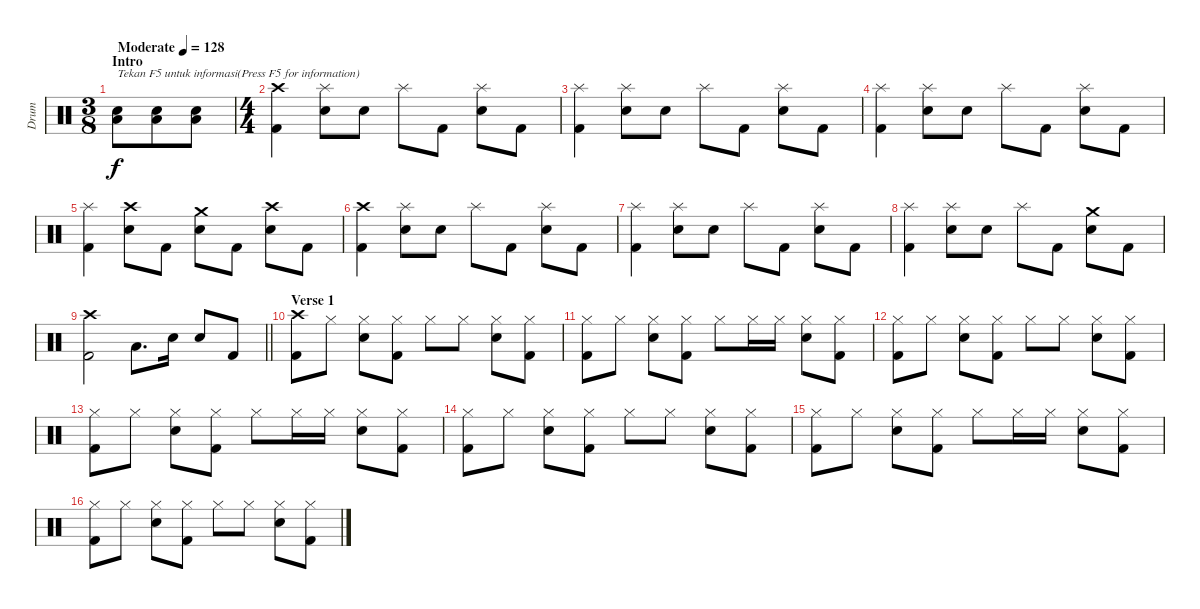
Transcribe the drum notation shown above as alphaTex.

\track ("Drum" "Drum") {instrument percussion}
\staff {score}
\articulation defaults
\ts (3 8)
\section ("" "Intro")
\tempo (128 "Moderate")
\clef neutral
\ks c
("Electric Snare (hit)" "Low Floor Tom (hit)").8{txt "Tekan F5 untuk informasi(Press F5 for information)" dy f} ("Electric Snare (hit)" "Low Floor Tom (hit)").8 ("Electric Snare (hit)" "Low Floor Tom (hit)").8 |
\ts (4 4)
("Crash high (hit)" "Kick (hit) 2").4 ("Splash (hit)" "Electric Snare (hit)").8 "Electric Snare (hit)".8 "Splash (hit)".8 "Kick (hit) 2".8 ("Splash (hit)" "Electric Snare (hit)").8 "Kick (hit) 2".8 |
("Splash (hit)" "Kick (hit) 2").4 ("Splash (hit)" "Electric Snare (hit)").8 "Electric Snare (hit)".8 "Splash (hit)".8 "Kick (hit) 2".8 ("Splash (hit)" "Electric Snare (hit)").8 "Kick (hit) 2".8 |
("Splash (hit)" "Kick (hit) 2").4 ("Splash (hit)" "Electric Snare (hit)").8 "Electric Snare (hit)".8 "Splash (hit)".8 "Kick (hit) 2".8 ("Splash (hit)" "Electric Snare (hit)").8 "Kick (hit) 2".8 |
("Splash (hit)" "Kick (hit) 2").4 ("Crash high (hit)" "Electric Snare (hit)").8 "Kick (hit) 2".8 ("Crash medium (hit)" "Electric Snare (hit)").8 "Kick (hit) 2".8 ("Crash high (hit)" "Electric Snare (hit)").8 "Kick (hit) 2".8 |
("Crash high (hit)" "Kick (hit) 2").4 ("Splash (hit)" "Electric Snare (hit)").8 "Electric Snare (hit)".8 "Splash (hit)".8 "Kick (hit) 2".8 ("Splash (hit)" "Electric Snare (hit)").8 "Kick (hit) 2".8 |
("Splash (hit)" "Kick (hit) 2").4 ("Splash (hit)" "Electric Snare (hit)").8 "Electric Snare (hit)".8 "Splash (hit)".8 "Kick (hit) 2".8 ("Splash (hit)" "Electric Snare (hit)").8 "Kick (hit) 2".8 |
("Splash (hit)" "Kick (hit) 2").4 ("Splash (hit)" "Electric Snare (hit)").8 "Electric Snare (hit)".8 "Splash (hit)".8 "Kick (hit) 2".8 ("Crash medium (hit)" "Electric Snare (hit)").8 "Kick (hit) 2".8 |
\barLineRight lightlight
("Crash high (hit)" "Kick (hit) 2").2 "Low Tom (hit)".8{d} "Electric Snare (hit)".16 "Electric Snare (hit)".8 "Kick (hit) 2".8 |
\section ("" "Verse 1")
("Crash high (hit)" "Kick (hit) 2").8 "Hi-Hat (closed)".8 ("Hi-Hat (closed)" "Electric Snare (hit)").8 ("Hi-Hat (closed)" "Kick (hit) 2").8 "Hi-Hat (closed)".8 "Hi-Hat (closed)".8 ("Hi-Hat (closed)" "Electric Snare (hit)").8 ("Hi-Hat (closed)" "Kick (hit) 2").8 |
("Hi-Hat (closed)" "Kick (hit) 2").8 "Hi-Hat (closed)".8 ("Hi-Hat (closed)" "Electric Snare (hit)").8 ("Hi-Hat (closed)" "Kick (hit) 2").8 "Hi-Hat (closed)".8 "Hi-Hat (closed)".16 "Hi-Hat (closed)".16 ("Hi-Hat (closed)" "Electric Snare (hit)").8 ("Hi-Hat (closed)" "Kick (hit) 2").8 |
("Hi-Hat (closed)" "Kick (hit) 2").8 "Hi-Hat (closed)".8 ("Hi-Hat (closed)" "Electric Snare (hit)").8 ("Hi-Hat (closed)" "Kick (hit) 2").8 "Hi-Hat (closed)".8 "Hi-Hat (closed)".8 ("Hi-Hat (closed)" "Electric Snare (hit)").8 ("Hi-Hat (closed)" "Kick (hit) 2").8 |
("Hi-Hat (closed)" "Kick (hit) 2").8 "Hi-Hat (closed)".8 ("Hi-Hat (closed)" "Electric Snare (hit)").8 ("Hi-Hat (closed)" "Kick (hit) 2").8 "Hi-Hat (closed)".8 "Hi-Hat (closed)".16 "Hi-Hat (closed)".16 ("Hi-Hat (closed)" "Electric Snare (hit)").8 ("Hi-Hat (closed)" "Kick (hit) 2").8 |
("Hi-Hat (closed)" "Kick (hit) 2").8 "Hi-Hat (closed)".8 ("Hi-Hat (closed)" "Electric Snare (hit)").8 ("Hi-Hat (closed)" "Kick (hit) 2").8 "Hi-Hat (closed)".8 "Hi-Hat (closed)".8 ("Hi-Hat (closed)" "Electric Snare (hit)").8 ("Hi-Hat (closed)" "Kick (hit) 2").8 |
("Hi-Hat (closed)" "Kick (hit) 2").8 "Hi-Hat (closed)".8 ("Hi-Hat (closed)" "Electric Snare (hit)").8 ("Hi-Hat (closed)" "Kick (hit) 2").8 "Hi-Hat (closed)".8 "Hi-Hat (closed)".16 "Hi-Hat (closed)".16 ("Hi-Hat (closed)" "Electric Snare (hit)").8 ("Hi-Hat (closed)" "Kick (hit) 2").8 |
("Hi-Hat (closed)" "Kick (hit) 2").8 "Hi-Hat (closed)".8 ("Hi-Hat (closed)" "Electric Snare (hit)").8 ("Hi-Hat (closed)" "Kick (hit) 2").8 "Hi-Hat (closed)".8 "Hi-Hat (closed)".8 ("Hi-Hat (closed)" "Electric Snare (hit)").8 ("Hi-Hat (closed)" "Kick (hit) 2").8
